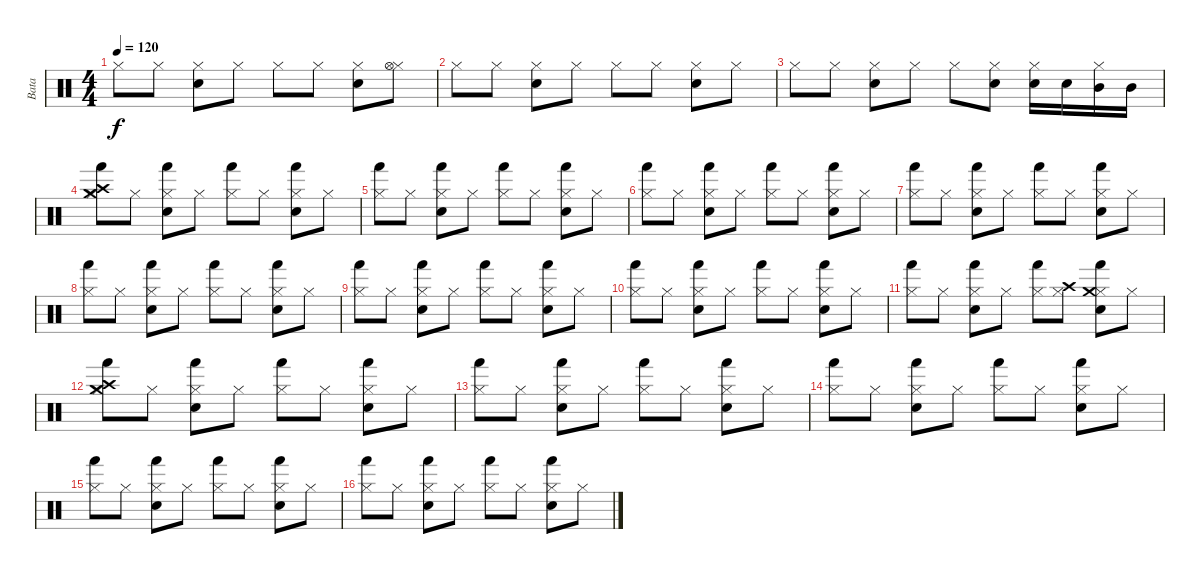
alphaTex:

\track ("Bata" "Bata") {instrument percussion}
\staff {score}
\articulation defaults
\ts (4 4)
\tempo 120
\clef neutral
\ks c "Hi-Hat (closed)".8{dy f} "Hi-Hat (closed)".8
("Hi-Hat (closed)" "Electric Snare (hit)").8 "Hi-Hat (closed)".8 "Hi-Hat (closed)".8 "Hi-Hat (closed)".8 ("Hi-Hat (closed)" "Electric Snare (hit)").8 ("Hi-Hat (closed)" "Hi-Hat (open)").8 |
"Hi-Hat (closed)".8 "Hi-Hat (closed)".8 ("Hi-Hat (closed)" "Electric Snare (hit)").8 "Hi-Hat (closed)".8 "Hi-Hat (closed)".8 "Hi-Hat (closed)".8 ("Hi-Hat (closed)" "Electric Snare (hit)").8 "Hi-Hat (closed)".8 |
"Hi-Hat (closed)".8 "Hi-Hat (closed)".8 ("Hi-Hat (closed)" "Electric Snare (hit)").8 "Hi-Hat (closed)".8 "Hi-Hat (closed)".8 ("Hi-Hat (closed)" "Electric Snare (hit)").8 ("Hi-Hat (closed)" "Electric Snare (hit)").16 "Electric Snare (hit)".16 ("Hi-Hat (closed)" "Mid Tom (hit)").16 "Mid Tom (hit)".16 |
("Hi-Hat (closed)" "Crash high (hit)" "Crash medium (hit)" "Hand (hit)").8 "Hi-Hat (closed)".8 ("Hi-Hat (closed)" "Electric Snare (hit)" "Hand (hit)").8 "Hi-Hat (closed)".8 ("Hi-Hat (closed)" "Hand (hit)").8 "Hi-Hat (closed)".8 ("Hi-Hat (closed)" "Electric Snare (hit)" "Hand (hit)").8 "Hi-Hat (closed)".8 |
("Hi-Hat (closed)" "Hand (hit)").8 "Hi-Hat (closed)".8 ("Hi-Hat (closed)" "Electric Snare (hit)" "Hand (hit)").8 "Hi-Hat (closed)".8 ("Hi-Hat (closed)" "Hand (hit)").8 "Hi-Hat (closed)".8 ("Hi-Hat (closed)" "Electric Snare (hit)" "Hand (hit)").8 "Hi-Hat (closed)".8 |
("Hi-Hat (closed)" "Hand (hit)").8 "Hi-Hat (closed)".8 ("Hi-Hat (closed)" "Electric Snare (hit)" "Hand (hit)").8 "Hi-Hat (closed)".8 ("Hi-Hat (closed)" "Hand (hit)").8 "Hi-Hat (closed)".8 ("Hi-Hat (closed)" "Electric Snare (hit)" "Hand (hit)").8 "Hi-Hat (closed)".8 |
("Hi-Hat (closed)" "Hand (hit)").8 "Hi-Hat (closed)".8 ("Hi-Hat (closed)" "Electric Snare (hit)" "Hand (hit)").8 "Hi-Hat (closed)".8 ("Hi-Hat (closed)" "Hand (hit)").8 "Hi-Hat (closed)".8 ("Hi-Hat (closed)" "Electric Snare (hit)" "Hand (hit)").8 "Hi-Hat (closed)".8 |
("Hi-Hat (closed)" "Hand (hit)").8 "Hi-Hat (closed)".8 ("Hi-Hat (closed)" "Electric Snare (hit)" "Hand (hit)").8 "Hi-Hat (closed)".8 ("Hi-Hat (closed)" "Hand (hit)").8 "Hi-Hat (closed)".8 ("Hi-Hat (closed)" "Electric Snare (hit)" "Hand (hit)").8 "Hi-Hat (closed)".8 |
("Hi-Hat (closed)" "Hand (hit)").8 "Hi-Hat (closed)".8 ("Hi-Hat (closed)" "Electric Snare (hit)" "Hand (hit)").8 "Hi-Hat (closed)".8 ("Hi-Hat (closed)" "Hand (hit)").8 "Hi-Hat (closed)".8 ("Hi-Hat (closed)" "Electric Snare (hit)" "Hand (hit)").8 "Hi-Hat (closed)".8 |
("Hi-Hat (closed)" "Hand (hit)").8 "Hi-Hat (closed)".8 ("Hi-Hat (closed)" "Electric Snare (hit)" "Hand (hit)").8 "Hi-Hat (closed)".8 ("Hi-Hat (closed)" "Hand (hit)").8 "Hi-Hat (closed)".8 ("Hi-Hat (closed)" "Electric Snare (hit)" "Hand (hit)").8 "Hi-Hat (closed)".8 |
("Hi-Hat (closed)" "Hand (hit)").8 "Hi-Hat (closed)".8 ("Hi-Hat (closed)" "Electric Snare (hit)" "Hand (hit)").8 "Hi-Hat (closed)".8 ("Hi-Hat (closed)" "Hand (hit)").8 ("Hi-Hat (closed)" "Crash high (hit)").8 ("Hi-Hat (closed)" "Electric Snare (hit)" "Crash medium (hit)" "Hand (hit)").8 "Hi-Hat (closed)".8 |
("Hi-Hat (closed)" "Crash high (hit)" "Crash medium (hit)" "Hand (hit)").8 "Hi-Hat (closed)".8 ("Hi-Hat (closed)" "Electric Snare (hit)" "Hand (hit)").8 "Hi-Hat (closed)".8 ("Hi-Hat (closed)" "Hand (hit)").8 "Hi-Hat (closed)".8 ("Hi-Hat (closed)" "Electric Snare (hit)" "Hand (hit)").8 "Hi-Hat (closed)".8 |
("Hi-Hat (closed)" "Hand (hit)").8 "Hi-Hat (closed)".8 ("Hi-Hat (closed)" "Electric Snare (hit)" "Hand (hit)").8 "Hi-Hat (closed)".8 ("Hi-Hat (closed)" "Hand (hit)").8 "Hi-Hat (closed)".8 ("Hi-Hat (closed)" "Electric Snare (hit)" "Hand (hit)").8 "Hi-Hat (closed)".8 |
("Hi-Hat (closed)" "Hand (hit)").8 "Hi-Hat (closed)".8 ("Hi-Hat (closed)" "Electric Snare (hit)" "Hand (hit)").8 "Hi-Hat (closed)".8 ("Hi-Hat (closed)" "Hand (hit)").8 "Hi-Hat (closed)".8 ("Hi-Hat (closed)" "Electric Snare (hit)" "Hand (hit)").8 "Hi-Hat (closed)".8 |
("Hi-Hat (closed)" "Hand (hit)").8 "Hi-Hat (closed)".8 ("Hi-Hat (closed)" "Electric Snare (hit)" "Hand (hit)").8 "Hi-Hat (closed)".8 ("Hi-Hat (closed)" "Hand (hit)").8 "Hi-Hat (closed)".8 ("Hi-Hat (closed)" "Electric Snare (hit)" "Hand (hit)").8 "Hi-Hat (closed)".8 |
("Hi-Hat (closed)" "Hand (hit)").8 "Hi-Hat (closed)".8 ("Hi-Hat (closed)" "Electric Snare (hit)" "Hand (hit)").8 "Hi-Hat (closed)".8 ("Hi-Hat (closed)" "Hand (hit)").8 "Hi-Hat (closed)".8 ("Hi-Hat (closed)" "Electric Snare (hit)" "Hand (hit)").8 "Hi-Hat (closed)".8
